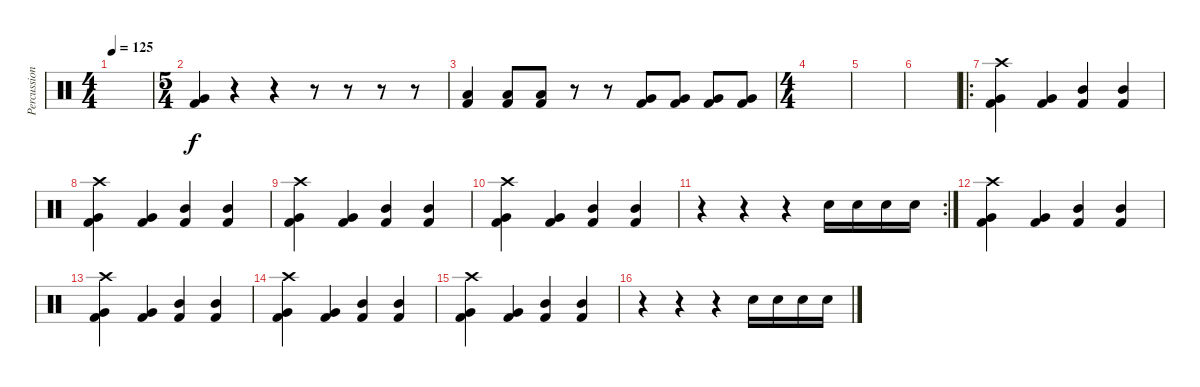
\track ("Percussion" "Percussion") {instrument percussion}
\staff {score}
\articulation defaults
\ts (4 4)
\tempo 125
\clef neutral
\ks c
|
\ts (5 4)
("Very Low Tom (hit)" "Kick (hit) 2").4 r.4 r.4 r.8 r.8 r.8 r.8 |
("Low Floor Tom (hit)" "Kick (hit) 2").4 ("Low Floor Tom (hit)" "Kick (hit) 2").8 ("Low Floor Tom (hit)" "Kick (hit) 2").8 r.8 r.8 ("Very Low Tom (hit)" "Kick (hit) 2").8 ("Very Low Tom (hit)" "Kick (hit) 2").8 ("Very Low Tom (hit)" "Kick (hit) 2").8 ("Very Low Tom (hit)" "Kick (hit) 2").8 |
\ts (4 4)
|
|
|
\ro
("Crash high (hit)" "Very Low Tom (hit)" "Kick (hit) 2").4 ("Very Low Tom (hit)" "Kick (hit) 2").4 ("Mid Tom (hit)" "Kick (hit) 2").4 ("Mid Tom (hit)" "Kick (hit) 2").4 |
("Crash high (hit)" "Very Low Tom (hit)" "Kick (hit) 2").4 ("Very Low Tom (hit)" "Kick (hit) 2").4 ("Mid Tom (hit)" "Kick (hit) 2").4 ("Mid Tom (hit)" "Kick (hit) 2").4 |
("Crash high (hit)" "Very Low Tom (hit)" "Kick (hit) 2").4 ("Very Low Tom (hit)" "Kick (hit) 2").4 ("Mid Tom (hit)" "Kick (hit) 2").4 ("Mid Tom (hit)" "Kick (hit) 2").4 |
("Crash high (hit)" "Very Low Tom (hit)" "Kick (hit) 2").4 ("Very Low Tom (hit)" "Kick (hit) 2").4 ("Mid Tom (hit)" "Kick (hit) 2").4 ("Mid Tom (hit)" "Kick (hit) 2").4 |
\rc 2
r.4 r.4 r.4 "Snare (hit) 2".16 "Snare (hit) 2".16 "Snare (hit) 2".16 "Snare (hit) 2".16 |
("Crash high (hit)" "Very Low Tom (hit)" "Kick (hit) 2").4 ("Very Low Tom (hit)" "Kick (hit) 2").4 ("Mid Tom (hit)" "Kick (hit) 2").4 ("Mid Tom (hit)" "Kick (hit) 2").4 |
("Crash high (hit)" "Very Low Tom (hit)" "Kick (hit) 2").4 ("Very Low Tom (hit)" "Kick (hit) 2").4 ("Mid Tom (hit)" "Kick (hit) 2").4 ("Mid Tom (hit)" "Kick (hit) 2").4 |
("Crash high (hit)" "Very Low Tom (hit)" "Kick (hit) 2").4 ("Very Low Tom (hit)" "Kick (hit) 2").4 ("Mid Tom (hit)" "Kick (hit) 2").4 ("Mid Tom (hit)" "Kick (hit) 2").4 |
("Crash high (hit)" "Very Low Tom (hit)" "Kick (hit) 2").4 ("Very Low Tom (hit)" "Kick (hit) 2").4 ("Mid Tom (hit)" "Kick (hit) 2").4 ("Mid Tom (hit)" "Kick (hit) 2").4 |
r.4 r.4 r.4 "Snare (hit) 2".16 "Snare (hit) 2".16 "Snare (hit) 2".16 "Snare (hit) 2".16
